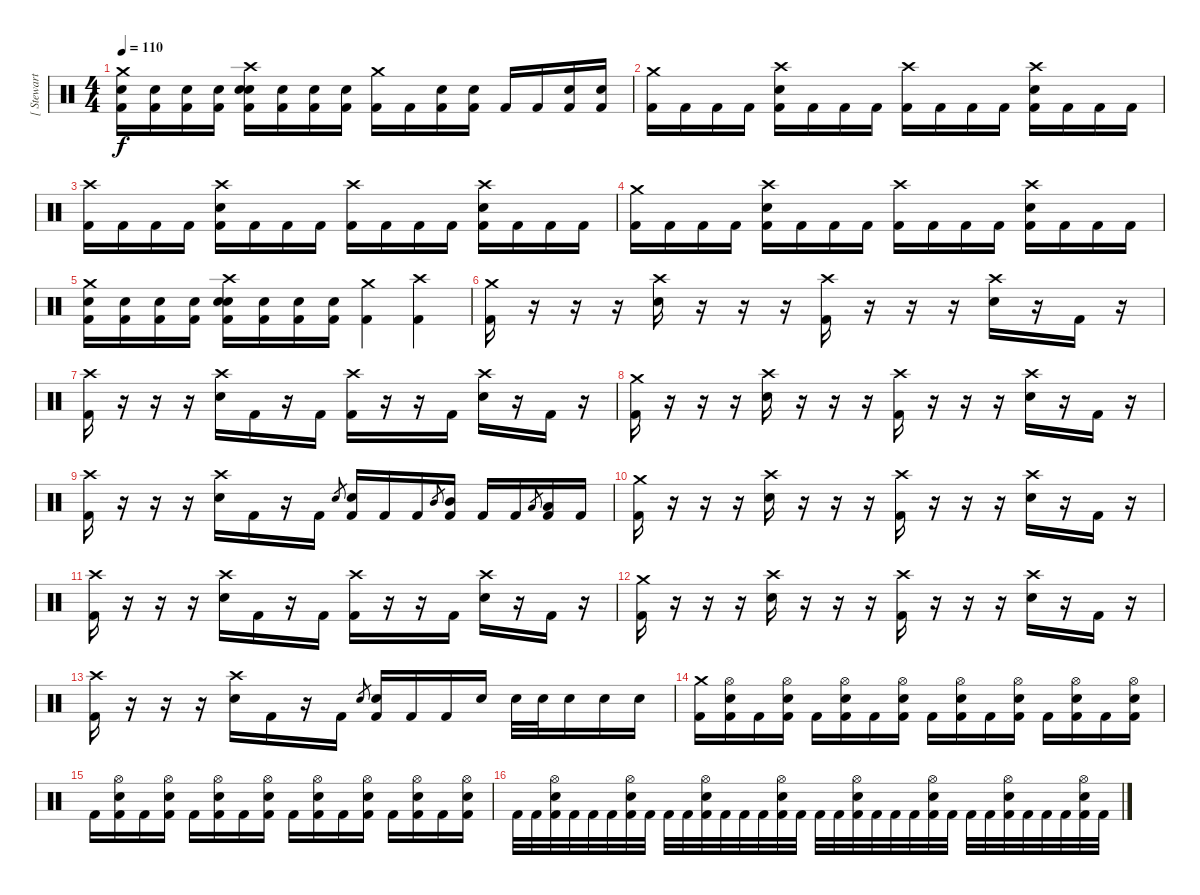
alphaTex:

\track ("[ Stewart ]" "[ Stewart ") {instrument percussion}
\staff {score}
\articulation defaults
\ts (4 4)
\tempo 110
\clef neutral
\ks c
("Kick (hit) 2" "Electric Snare (hit)" "Crash medium (hit)").16{dy f} ("Kick (hit) 2" "Electric Snare (hit)").16 ("Kick (hit) 2" "Electric Snare (hit)").16 ("Kick (hit) 2" "Electric Snare (hit)").16 ("Kick (hit) 2" "Electric Snare (hit)" "Electric Snare (hit)" "Crash high (hit)").16 ("Kick (hit) 2" "Electric Snare (hit)").16 ("Kick (hit) 2" "Electric Snare (hit)").16 ("Kick (hit) 2" "Electric Snare (hit)").16 ("Kick (hit) 2" "Crash medium (hit)").16 "Kick (hit) 2".16 ("Kick (hit) 2" "Electric Snare (hit)").16 ("Kick (hit) 2" "Electric Snare (hit)").16 "Kick (hit) 2".16 "Kick (hit) 2".16 ("Kick (hit) 2" "Electric Snare (hit)").16 ("Kick (hit) 2" "Electric Snare (hit)").16 |
("Kick (hit) 2" "Crash medium (hit)").16 "Kick (hit) 2".16 "Kick (hit) 2".16 "Kick (hit) 2".16 ("Kick (hit) 2" "Electric Snare (hit)" "Crash high (hit)").16 "Kick (hit) 2".16 "Kick (hit) 2".16 "Kick (hit) 2".16 ("Kick (hit) 2" "Crash high (hit)").16 "Kick (hit) 2".16 "Kick (hit) 2".16 "Kick (hit) 2".16 ("Kick (hit) 2" "Electric Snare (hit)" "Crash high (hit)").16 "Kick (hit) 2".16 "Kick (hit) 2".16 "Kick (hit) 2".16 |
("Kick (hit) 2" "Crash high (hit)").16 "Kick (hit) 2".16 "Kick (hit) 2".16 "Kick (hit) 2".16 ("Kick (hit) 2" "Electric Snare (hit)" "Crash high (hit)").16 "Kick (hit) 2".16 "Kick (hit) 2".16 "Kick (hit) 2".16 ("Kick (hit) 2" "Crash high (hit)").16 "Kick (hit) 2".16 "Kick (hit) 2".16 "Kick (hit) 2".16 ("Kick (hit) 2" "Electric Snare (hit)" "Crash high (hit)").16 "Kick (hit) 2".16 "Kick (hit) 2".16 "Kick (hit) 2".16 |
("Kick (hit) 2" "Crash medium (hit)").16 "Kick (hit) 2".16 "Kick (hit) 2".16 "Kick (hit) 2".16 ("Kick (hit) 2" "Electric Snare (hit)" "Crash high (hit)").16 "Kick (hit) 2".16 "Kick (hit) 2".16 "Kick (hit) 2".16 ("Kick (hit) 2" "Crash high (hit)").16 "Kick (hit) 2".16 "Kick (hit) 2".16 "Kick (hit) 2".16 ("Kick (hit) 2" "Electric Snare (hit)" "Crash high (hit)").16 "Kick (hit) 2".16 "Kick (hit) 2".16 "Kick (hit) 2".16 |
("Kick (hit) 2" "Electric Snare (hit)" "Crash medium (hit)").16 ("Kick (hit) 2" "Electric Snare (hit)").16 ("Kick (hit) 2" "Electric Snare (hit)").16 ("Kick (hit) 2" "Electric Snare (hit)").16 ("Kick (hit) 2" "Electric Snare (hit)" "Electric Snare (hit)" "Crash high (hit)").16 ("Kick (hit) 2" "Electric Snare (hit)").16 ("Kick (hit) 2" "Electric Snare (hit)").16 ("Kick (hit) 2" "Electric Snare (hit)").16 ("Kick (hit) 2" "Crash medium (hit)").4 ("Kick (hit) 2" "Crash high (hit)").4 |
("Kick (hit) 2" "Crash medium (hit)").16 r.16 r.16 r.16 ("Electric Snare (hit)" "Crash high (hit)").16 r.16 r.16 r.16 ("Kick (hit) 2" "Crash high (hit)").16 r.16 r.16 r.16 ("Electric Snare (hit)" "Crash high (hit)").16 r.16 "Kick (hit) 2".16 r.16 |
("Kick (hit) 2" "Crash high (hit)").16 r.16 r.16 r.16 ("Electric Snare (hit)" "Crash high (hit)").16 "Kick (hit) 2".16 r.16 "Kick (hit) 2".16 ("Kick (hit) 2" "Crash high (hit)").16 r.16 r.16 "Kick (hit) 2".16 ("Electric Snare (hit)" "Crash high (hit)").16 r.16 "Kick (hit) 2".16 r.16 |
("Kick (hit) 2" "Crash medium (hit)").16 r.16 r.16 r.16 ("Electric Snare (hit)" "Crash high (hit)").16 r.16 r.16 r.16 ("Kick (hit) 2" "Crash high (hit)").16 r.16 r.16 r.16 ("Electric Snare (hit)" "Crash high (hit)").16 r.16 "Kick (hit) 2".16 r.16 |
("Kick (hit) 2" "Crash high (hit)").16 r.16 r.16 r.16 ("Electric Snare (hit)" "Crash high (hit)").16 "Kick (hit) 2".16 r.16 "Kick (hit) 2".16 "Electric Snare (hit)".8{gr} ("Kick (hit) 2" "Electric Snare (hit)").16 "Kick (hit) 2".16 "Kick (hit) 2".16 "Mid Tom (hit)".8{gr} ("Kick (hit) 2" "Mid Tom (hit)").16 "Kick (hit) 2".16 "Kick (hit) 2".16 "Low Tom (hit)".8{gr} ("Kick (hit) 2" "Low Tom (hit)").16 "Kick (hit) 2".16 |
("Kick (hit) 2" "Crash medium (hit)").16 r.16 r.16 r.16 ("Electric Snare (hit)" "Crash high (hit)").16 r.16 r.16 r.16 ("Kick (hit) 2" "Crash high (hit)").16 r.16 r.16 r.16 ("Electric Snare (hit)" "Crash high (hit)").16 r.16 "Kick (hit) 2".16 r.16 |
("Kick (hit) 2" "Crash high (hit)").16 r.16 r.16 r.16 ("Electric Snare (hit)" "Crash high (hit)").16 "Kick (hit) 2".16 r.16 "Kick (hit) 2".16 ("Kick (hit) 2" "Crash high (hit)").16 r.16 r.16 "Kick (hit) 2".16 ("Electric Snare (hit)" "Crash high (hit)").16 r.16 "Kick (hit) 2".16 r.16 |
("Kick (hit) 2" "Crash medium (hit)").16 r.16 r.16 r.16 ("Electric Snare (hit)" "Crash high (hit)").16 r.16 r.16 r.16 ("Kick (hit) 2" "Crash high (hit)").16 r.16 r.16 r.16 ("Electric Snare (hit)" "Crash high (hit)").16 r.16 "Kick (hit) 2".16 r.16 |
("Kick (hit) 2" "Crash high (hit)").16 r.16 r.16 r.16 ("Electric Snare (hit)" "Crash high (hit)").16 "Kick (hit) 2".16 r.16 "Kick (hit) 2".16 "Electric Snare (hit)".8{gr} ("Kick (hit) 2" "Electric Snare (hit)").16 "Kick (hit) 2".16 "Kick (hit) 2".16 "Electric Snare (hit)".16 "Electric Snare (hit)".32 "Electric Snare (hit)".32 "Electric Snare (hit)".16 "Electric Snare (hit)".16 "Electric Snare (hit)".16 |
("Kick (hit) 2" "Crash medium (hit)").16 ("Kick (hit) 2" "Electric Snare (hit)" "Hi-Hat (open)").16 "Kick (hit) 2".16 ("Kick (hit) 2" "Electric Snare (hit)" "Hi-Hat (open)").16 "Kick (hit) 2".16 ("Kick (hit) 2" "Electric Snare (hit)" "Hi-Hat (open)").16 "Kick (hit) 2".16 ("Kick (hit) 2" "Electric Snare (hit)" "Hi-Hat (open)").16 "Kick (hit) 2".16 ("Kick (hit) 2" "Electric Snare (hit)" "Hi-Hat (open)").16 "Kick (hit) 2".16 ("Kick (hit) 2" "Electric Snare (hit)" "Hi-Hat (open)").16 "Kick (hit) 2".16 ("Kick (hit) 2" "Electric Snare (hit)" "Hi-Hat (open)").16 "Kick (hit) 2".16 ("Kick (hit) 2" "Electric Snare (hit)" "Hi-Hat (open)").16 |
"Kick (hit) 2".16 ("Kick (hit) 2" "Electric Snare (hit)" "Hi-Hat (open)").16 "Kick (hit) 2".16 ("Kick (hit) 2" "Electric Snare (hit)" "Hi-Hat (open)").16 "Kick (hit) 2".16 ("Kick (hit) 2" "Electric Snare (hit)" "Hi-Hat (open)").16 "Kick (hit) 2".16 ("Kick (hit) 2" "Electric Snare (hit)" "Hi-Hat (open)").16 "Kick (hit) 2".16 ("Kick (hit) 2" "Electric Snare (hit)" "Hi-Hat (open)").16 "Kick (hit) 2".16 ("Kick (hit) 2" "Electric Snare (hit)" "Hi-Hat (open)").16 "Kick (hit) 2".16 ("Kick (hit) 2" "Electric Snare (hit)" "Hi-Hat (open)").16 "Kick (hit) 2".16 ("Kick (hit) 2" "Electric Snare (hit)" "Hi-Hat (open)").16 |
"Kick (hit) 2".32 "Kick (hit) 2".32 ("Kick (hit) 2" "Electric Snare (hit)" "Hi-Hat (open)").32 "Kick (hit) 2".32 "Kick (hit) 2".32 "Kick (hit) 2".32 ("Kick (hit) 2" "Electric Snare (hit)" "Hi-Hat (open)").32 "Kick (hit) 2".32 "Kick (hit) 2".32 "Kick (hit) 2".32 ("Kick (hit) 2" "Electric Snare (hit)" "Hi-Hat (open)").32 "Kick (hit) 2".32 "Kick (hit) 2".32 "Kick (hit) 2".32 ("Kick (hit) 2" "Electric Snare (hit)" "Hi-Hat (open)").32 "Kick (hit) 2".32 "Kick (hit) 2".32 "Kick (hit) 2".32 ("Kick (hit) 2" "Electric Snare (hit)" "Hi-Hat (open)").32 "Kick (hit) 2".32 "Kick (hit) 2".32 "Kick (hit) 2".32 ("Kick (hit) 2" "Electric Snare (hit)" "Hi-Hat (open)").32 "Kick (hit) 2".32 "Kick (hit) 2".32 "Kick (hit) 2".32 ("Kick (hit) 2" "Electric Snare (hit)" "Hi-Hat (open)").32 "Kick (hit) 2".32 "Kick (hit) 2".32 "Kick (hit) 2".32 ("Kick (hit) 2" "Electric Snare (hit)" "Hi-Hat (open)").32 "Kick (hit) 2".32
